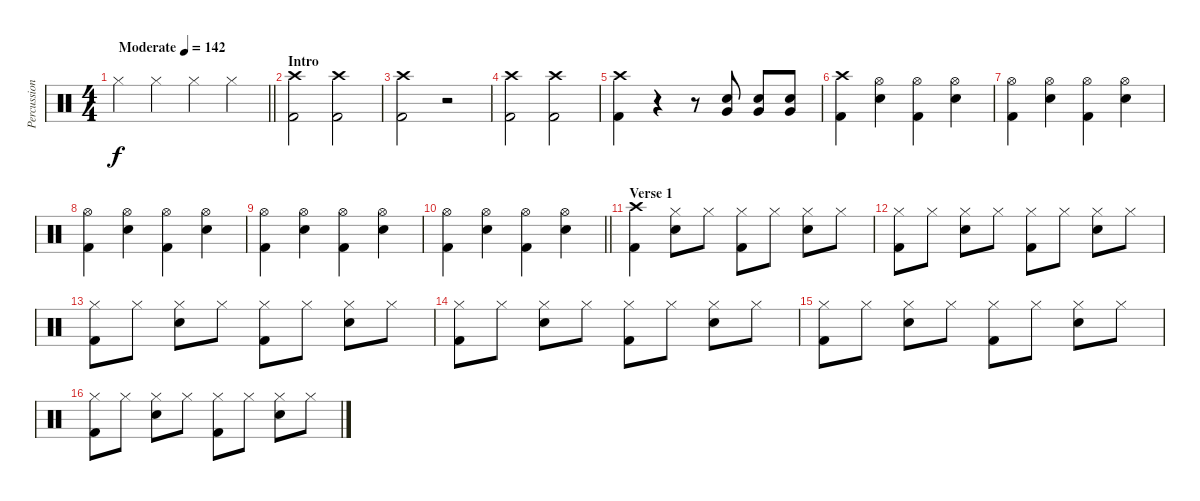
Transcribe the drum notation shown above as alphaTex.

\track ("Percussion" "Percussion") {instrument percussion}
\staff {score}
\articulation defaults
\ts (4 4)
\tempo (142 "Moderate")
\clef neutral
\barLineRight lightlight
\ks c "Hi-Hat (closed)".4{dy f} "Hi-Hat (closed)".4 "Hi-Hat (closed)".4 "Hi-Hat (closed)".4
|
\section ("" "Intro")
("Crash high (hit)" "Kick (hit) 2").2 ("Crash high (hit)" "Kick (hit) 2").2 |
("Crash high (hit)" "Kick (hit) 2").2 r.2 |
("Crash high (hit)" "Kick (hit) 2").2 ("Crash high (hit)" "Kick (hit) 2").2 |
("Crash high (hit)" "Kick (hit) 2").4 r.4 r.8{volume 5} ("Snare (hit) 2" "Very Low Tom (hit)").8{volume 13} ("Snare (hit) 2" "Very Low Tom (hit)").8 ("Snare (hit) 2" "Very Low Tom (hit)").8 |
("Crash high (hit)" "Kick (hit) 2").4 ("Hi-Hat (open)" "Snare (hit) 2").4 ("Hi-Hat (open)" "Kick (hit) 2").4 ("Hi-Hat (open)" "Snare (hit) 2").4 |
("Hi-Hat (open)" "Kick (hit) 2").4 ("Hi-Hat (open)" "Snare (hit) 2").4 ("Hi-Hat (open)" "Kick (hit) 2").4 ("Hi-Hat (open)" "Snare (hit) 2").4 |
("Hi-Hat (open)" "Kick (hit) 2").4 ("Hi-Hat (open)" "Snare (hit) 2").4 ("Hi-Hat (open)" "Kick (hit) 2").4 ("Hi-Hat (open)" "Snare (hit) 2").4 |
("Hi-Hat (open)" "Kick (hit) 2").4 ("Hi-Hat (open)" "Snare (hit) 2").4 ("Hi-Hat (open)" "Kick (hit) 2").4 ("Hi-Hat (open)" "Snare (hit) 2").4 |
\barLineRight lightlight
("Hi-Hat (open)" "Kick (hit) 2").4 ("Hi-Hat (open)" "Snare (hit) 2").4 ("Hi-Hat (open)" "Kick (hit) 2").4 ("Hi-Hat (open)" "Snare (hit) 2").4 |
\section ("" "Verse 1")
("Crash high (hit)" "Kick (hit) 2").4 ("Hi-Hat (closed)" "Snare (hit) 2").8 "Hi-Hat (closed)".8 ("Hi-Hat (closed)" "Kick (hit) 2").8 "Hi-Hat (closed)".8 ("Hi-Hat (closed)" "Snare (hit) 2").8 "Hi-Hat (closed)".8 |
("Hi-Hat (closed)" "Kick (hit) 2").8 "Hi-Hat (closed)".8 ("Hi-Hat (closed)" "Snare (hit) 2").8 "Hi-Hat (closed)".8 ("Hi-Hat (closed)" "Kick (hit) 2").8 "Hi-Hat (closed)".8 ("Hi-Hat (closed)" "Snare (hit) 2").8 "Hi-Hat (closed)".8 |
("Hi-Hat (closed)" "Kick (hit) 2").8 "Hi-Hat (closed)".8 ("Hi-Hat (closed)" "Snare (hit) 2").8 "Hi-Hat (closed)".8 ("Hi-Hat (closed)" "Kick (hit) 2").8 "Hi-Hat (closed)".8 ("Hi-Hat (closed)" "Snare (hit) 2").8 "Hi-Hat (closed)".8 |
("Hi-Hat (closed)" "Kick (hit) 2").8 "Hi-Hat (closed)".8 ("Hi-Hat (closed)" "Snare (hit) 2").8 "Hi-Hat (closed)".8 ("Hi-Hat (closed)" "Kick (hit) 2").8 "Hi-Hat (closed)".8 ("Hi-Hat (closed)" "Snare (hit) 2").8 "Hi-Hat (closed)".8 |
("Hi-Hat (closed)" "Kick (hit) 2").8 "Hi-Hat (closed)".8 ("Hi-Hat (closed)" "Snare (hit) 2").8 "Hi-Hat (closed)".8 ("Hi-Hat (closed)" "Kick (hit) 2").8 "Hi-Hat (closed)".8 ("Hi-Hat (closed)" "Snare (hit) 2").8 "Hi-Hat (closed)".8 |
("Hi-Hat (closed)" "Kick (hit) 2").8 "Hi-Hat (closed)".8 ("Hi-Hat (closed)" "Snare (hit) 2").8 "Hi-Hat (closed)".8 ("Hi-Hat (closed)" "Kick (hit) 2").8 "Hi-Hat (closed)".8 ("Hi-Hat (closed)" "Snare (hit) 2").8 "Hi-Hat (closed)".8
